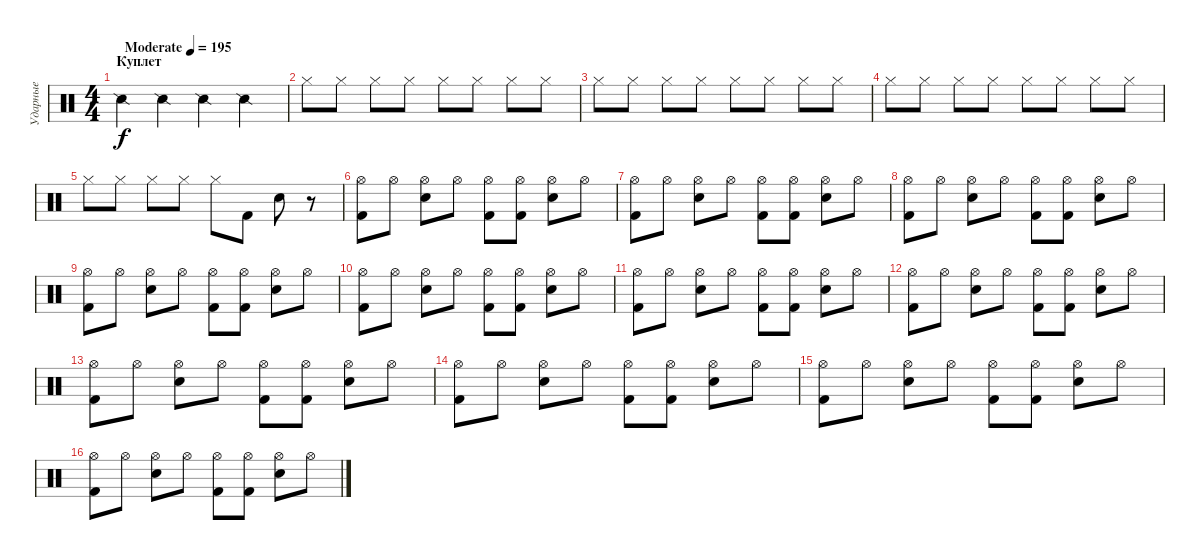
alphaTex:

\track ("Ударные" "Ударные") {instrument percussion}
\staff {score}
\articulation defaults
\ts (4 4)
\section ("" "Куплет")
\tempo (195 "Moderate")
\clef neutral
\ks c "Snare (side stick) 2".4{dy f} "Snare (side stick) 2".4 "Snare (side stick) 2".4 "Snare (side stick) 2".4
|
"Hi-Hat (closed)".8 "Hi-Hat (closed)".8 "Hi-Hat (closed)".8 "Hi-Hat (closed)".8 "Hi-Hat (closed)".8 "Hi-Hat (closed)".8 "Hi-Hat (closed)".8 "Hi-Hat (closed)".8 |
"Hi-Hat (closed)".8 "Hi-Hat (closed)".8 "Hi-Hat (closed)".8 "Hi-Hat (closed)".8 "Hi-Hat (closed)".8 "Hi-Hat (closed)".8 "Hi-Hat (closed)".8 "Hi-Hat (closed)".8 |
"Hi-Hat (closed)".8 "Hi-Hat (closed)".8 "Hi-Hat (closed)".8 "Hi-Hat (closed)".8 "Hi-Hat (closed)".8 "Hi-Hat (closed)".8 "Hi-Hat (closed)".8 "Hi-Hat (closed)".8 |
"Hi-Hat (closed)".8 "Hi-Hat (closed)".8 "Hi-Hat (closed)".8 "Hi-Hat (closed)".8 "Hi-Hat (closed)".8 "Kick (hit) 2".8 "Snare (hit) 2".8 r.8 |
("Hi-Hat (open)" "Kick (hit) 2").8 "Hi-Hat (open)".8 ("Hi-Hat (open)" "Snare (hit) 2").8 "Hi-Hat (open)".8 ("Hi-Hat (open)" "Kick (hit) 2").8 ("Hi-Hat (open)" "Kick (hit) 2").8 ("Hi-Hat (open)" "Snare (hit) 2").8 "Hi-Hat (open)".8 |
("Hi-Hat (open)" "Kick (hit) 2").8 "Hi-Hat (open)".8 ("Hi-Hat (open)" "Snare (hit) 2").8 "Hi-Hat (open)".8 ("Hi-Hat (open)" "Kick (hit) 2").8 ("Hi-Hat (open)" "Kick (hit) 2").8 ("Hi-Hat (open)" "Snare (hit) 2").8 "Hi-Hat (open)".8 |
("Hi-Hat (open)" "Kick (hit) 2").8 "Hi-Hat (open)".8 ("Hi-Hat (open)" "Snare (hit) 2").8 "Hi-Hat (open)".8 ("Hi-Hat (open)" "Kick (hit) 2").8 ("Hi-Hat (open)" "Kick (hit) 2").8 ("Hi-Hat (open)" "Snare (hit) 2").8 "Hi-Hat (open)".8 |
("Hi-Hat (open)" "Kick (hit) 2").8 "Hi-Hat (open)".8 ("Hi-Hat (open)" "Snare (hit) 2").8 "Hi-Hat (open)".8 ("Hi-Hat (open)" "Kick (hit) 2").8 ("Hi-Hat (open)" "Kick (hit) 2").8 ("Hi-Hat (open)" "Snare (hit) 2").8 "Hi-Hat (open)".8 |
("Hi-Hat (open)" "Kick (hit) 2").8 "Hi-Hat (open)".8 ("Hi-Hat (open)" "Snare (hit) 2").8 "Hi-Hat (open)".8 ("Hi-Hat (open)" "Kick (hit) 2").8 ("Hi-Hat (open)" "Kick (hit) 2").8 ("Hi-Hat (open)" "Snare (hit) 2").8 "Hi-Hat (open)".8 |
("Hi-Hat (open)" "Kick (hit) 2").8 "Hi-Hat (open)".8 ("Hi-Hat (open)" "Snare (hit) 2").8 "Hi-Hat (open)".8 ("Hi-Hat (open)" "Kick (hit) 2").8 ("Hi-Hat (open)" "Kick (hit) 2").8 ("Hi-Hat (open)" "Snare (hit) 2").8 "Hi-Hat (open)".8 |
("Hi-Hat (open)" "Kick (hit) 2").8 "Hi-Hat (open)".8 ("Hi-Hat (open)" "Snare (hit) 2").8 "Hi-Hat (open)".8 ("Hi-Hat (open)" "Kick (hit) 2").8 ("Hi-Hat (open)" "Kick (hit) 2").8 ("Hi-Hat (open)" "Snare (hit) 2").8 "Hi-Hat (open)".8 |
("Hi-Hat (open)" "Kick (hit) 2").8 "Hi-Hat (open)".8 ("Hi-Hat (open)" "Snare (hit) 2").8 "Hi-Hat (open)".8 ("Hi-Hat (open)" "Kick (hit) 2").8 ("Hi-Hat (open)" "Kick (hit) 2").8 ("Hi-Hat (open)" "Snare (hit) 2").8 "Hi-Hat (open)".8 |
("Hi-Hat (open)" "Kick (hit) 2").8 "Hi-Hat (open)".8 ("Hi-Hat (open)" "Snare (hit) 2").8 "Hi-Hat (open)".8 ("Hi-Hat (open)" "Kick (hit) 2").8 ("Hi-Hat (open)" "Kick (hit) 2").8 ("Hi-Hat (open)" "Snare (hit) 2").8 "Hi-Hat (open)".8 |
("Hi-Hat (open)" "Kick (hit) 2").8 "Hi-Hat (open)".8 ("Hi-Hat (open)" "Snare (hit) 2").8 "Hi-Hat (open)".8 ("Hi-Hat (open)" "Kick (hit) 2").8 ("Hi-Hat (open)" "Kick (hit) 2").8 ("Hi-Hat (open)" "Snare (hit) 2").8 "Hi-Hat (open)".8 |
("Hi-Hat (open)" "Kick (hit) 2").8 "Hi-Hat (open)".8 ("Hi-Hat (open)" "Snare (hit) 2").8 "Hi-Hat (open)".8 ("Hi-Hat (open)" "Kick (hit) 2").8 ("Hi-Hat (open)" "Kick (hit) 2").8 ("Hi-Hat (open)" "Snare (hit) 2").8 "Hi-Hat (open)".8
